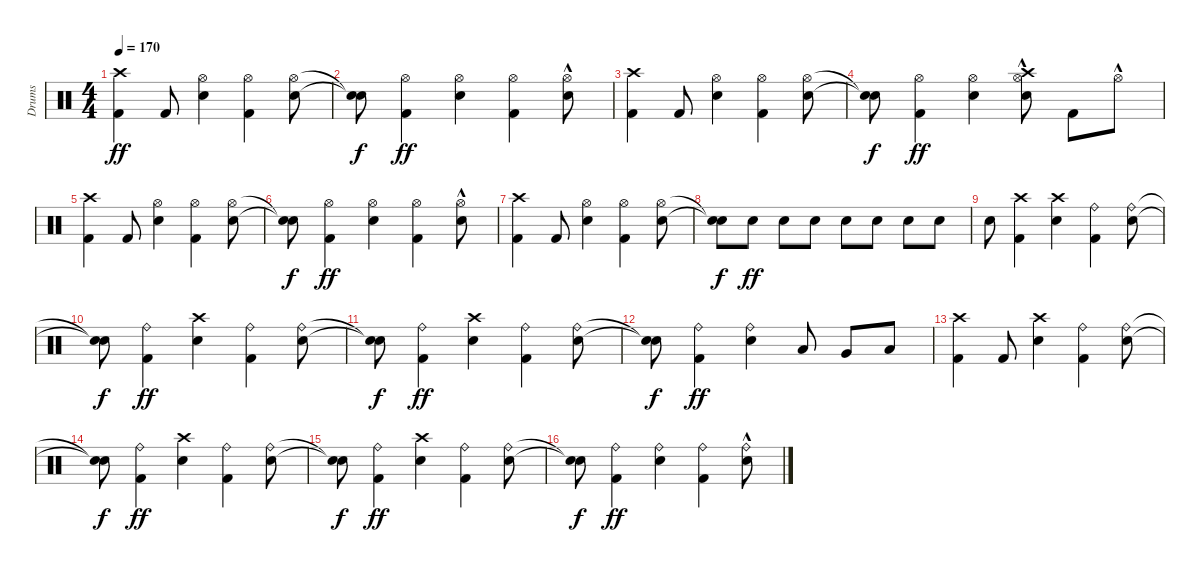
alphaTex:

\track ("Drums" "Drums") {instrument percussion}
\staff {score}
\articulation defaults
\ts (4 4)
\tempo 170
\clef neutral
\ks c
("Kick (hit) 2" "Crash high (hit)").4{dy ff} "Kick (hit) 2".8 ("Snare (hit) 2" "Hi-Hat (open)").4 ("Kick (hit) 2" "Hi-Hat (open)").4 ("Snare (hit) 2" "Hi-Hat (open)").8 |
("Snare (hit)"{t} "Snare (hit)"{t}).8{dy f} ("Kick (hit) 2" "Hi-Hat (open)").4{dy ff} ("Snare (hit) 2" "Hi-Hat (open)").4 ("Kick (hit) 2" "Hi-Hat (open)").4 ("Snare (hit) 2" "Hi-Hat (open)"{hac}).8 |
("Kick (hit) 2" "Crash high (hit)").4 "Kick (hit) 2".8 ("Snare (hit) 2" "Hi-Hat (open)").4 ("Kick (hit) 2" "Hi-Hat (open)").4 ("Snare (hit) 2" "Hi-Hat (open)").8 |
("Snare (hit)"{t} "Snare (hit)"{t}).8{dy f} ("Kick (hit) 2" "Hi-Hat (open)").4{dy ff} ("Snare (hit) 2" "Hi-Hat (open)").4 ("Snare (hit) 2" "Hi-Hat (open)"{hac} "Crash high (hit)"{hac}).8 "Kick (hit) 2".8 "Hi-Hat (open)"{hac}.8 |
("Kick (hit) 2" "Crash high (hit)").4 "Kick (hit) 2".8 ("Snare (hit) 2" "Hi-Hat (open)").4 ("Kick (hit) 2" "Hi-Hat (open)").4 ("Snare (hit) 2" "Hi-Hat (open)").8 |
("Snare (hit)"{t} "Snare (hit)"{t}).8{dy f} ("Kick (hit) 2" "Hi-Hat (open)").4{dy ff} ("Snare (hit) 2" "Hi-Hat (open)").4 ("Kick (hit) 2" "Hi-Hat (open)").4 ("Snare (hit) 2" "Hi-Hat (open)"{hac}).8 |
("Kick (hit) 2" "Crash high (hit)").4 "Kick (hit) 2".8 ("Snare (hit) 2" "Hi-Hat (open)").4 ("Kick (hit) 2" "Hi-Hat (open)").4 ("Snare (hit) 2" "Hi-Hat (open)").8 |
("Snare (hit)"{t} "Snare (hit)"{t}).8{dy f} "Snare (hit) 2".8{dy ff} "Snare (hit) 2".8 "Snare (hit) 2".8 "Snare (hit) 2".8 "Snare (hit) 2".8 "Snare (hit) 2".8 "Snare (hit) 2".8 |
"Snare (hit) 2".8 ("Kick (hit) 2" "Crash high (hit)").4 ("Snare (hit) 2" "Crash high (hit)").4 ("Kick (hit) 2" "Ride (bell)").4 ("Snare (hit) 2" "Ride (bell)").8 |
("Snare (hit)"{t} "Snare (hit)"{t}).8{dy f} ("Kick (hit) 2" "Ride (bell)").4{dy ff} ("Snare (hit) 2" "Crash high (hit)").4 ("Kick (hit) 2" "Ride (bell)").4 ("Snare (hit) 2" "Ride (bell)").8 |
("Snare (hit)"{t} "Snare (hit)"{t}).8{dy f} ("Kick (hit) 2" "Ride (bell)").4{dy ff} ("Snare (hit) 2" "Crash high (hit)").4 ("Kick (hit) 2" "Ride (bell)").4 ("Snare (hit) 2" "Ride (bell)").8 |
("Snare (hit)"{t} "Snare (hit)"{t}).8{dy f} ("Kick (hit) 2" "Ride (bell)").4{dy ff} ("Snare (hit) 2" "Ride (bell)").4 "Low Tom (hit)".8 "Very Low Tom (hit)".8 "Low Floor Tom (hit)".8 |
("Kick (hit) 2" "Crash high (hit)").4 "Kick (hit) 2".8 ("Snare (hit) 2" "Crash high (hit)").4 ("Kick (hit) 2" "Ride (bell)").4 ("Snare (hit) 2" "Ride (bell)").8 |
("Snare (hit)"{t} "Snare (hit)"{t}).8{dy f} ("Kick (hit) 2" "Ride (bell)").4{dy ff} ("Snare (hit) 2" "Crash high (hit)").4 ("Kick (hit) 2" "Ride (bell)").4 ("Snare (hit) 2" "Ride (bell)").8 |
("Snare (hit)"{t} "Snare (hit)"{t}).8{dy f} ("Kick (hit) 2" "Ride (bell)").4{dy ff} ("Snare (hit) 2" "Crash high (hit)").4 ("Kick (hit) 2" "Ride (bell)").4 ("Snare (hit) 2" "Ride (bell)").8 |
("Snare (hit)"{t} "Snare (hit)"{t}).8{dy f} ("Kick (hit) 2" "Ride (bell)").4{dy ff} ("Snare (hit) 2" "Ride (bell)").4 ("Kick (hit) 2" "Ride (bell)").4 ("Snare (hit) 2" "Ride (bell)"{hac}).8
